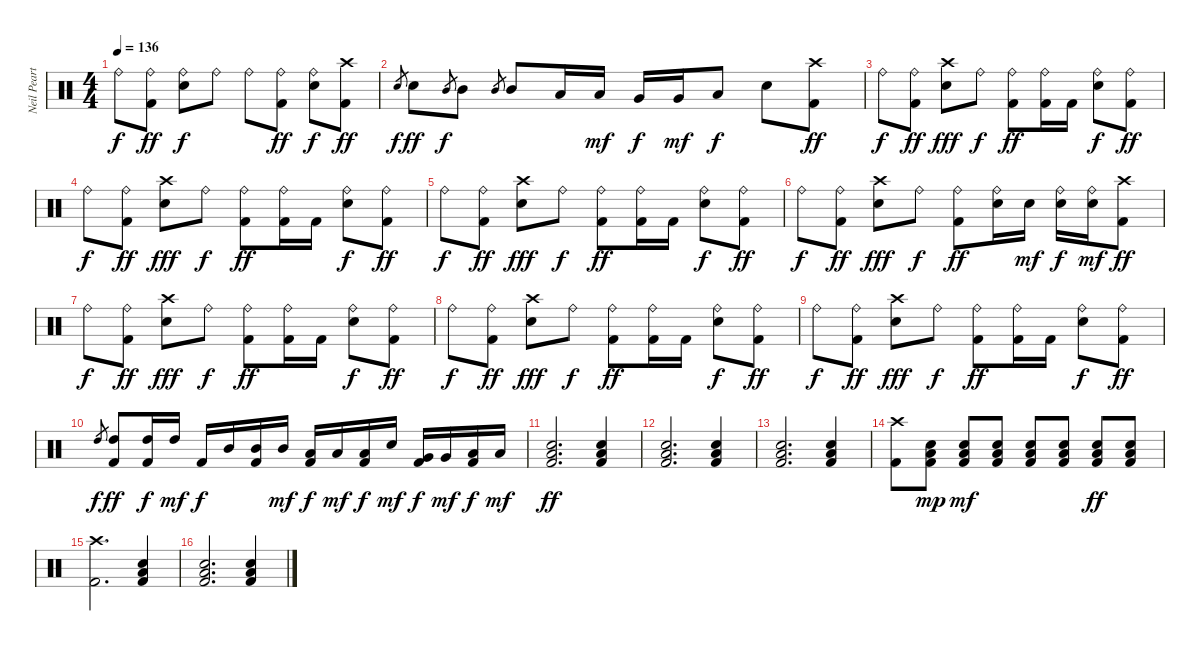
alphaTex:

\track ("Neil Peart" "Neil Peart") {instrument percussion}
\staff {score}
\articulation defaults
\ts (4 4)
\tempo 136
\clef neutral
\ks c "Ride (bell)".8{dy f}
("Ride (bell)" "Kick (hit) 2").8{dy ff} ("Ride (bell)" "Snare (hit) 2").8{dy f} "Ride (bell)".8 "Ride (bell)".8 ("Ride (bell)" "Kick (hit) 2").8{dy ff} ("Ride (bell)" "Snare (hit) 2").8{dy f} ("Crash high (hit)" "Kick (hit) 2").8{dy ff} |
"Snare (hit) 2".8{gr dy f} "Snare (hit) 2".8{dy ff} "Mid Tom (hit)".8{gr dy f} "Mid Tom (hit)".8 "Mid Tom (hit)".8{gr} "Mid Tom (hit)".8 "Low Tom (hit)".16 "Low Tom (hit)".16{dy mf} "Very Low Tom (hit)".16{dy f} "Very Low Tom (hit)".16{dy mf} "Low Floor Tom (hit)".8{dy f} "Snare (hit) 2".8 ("Crash high (hit)" "Kick (hit) 2").8{dy ff} |
"Ride (bell)".8{dy f} ("Ride (bell)" "Kick (hit) 2").8{dy ff} ("Crash high (hit)" "Snare (hit) 2").8{dy fff} "Ride (bell)".8{dy f} ("Ride (bell)" "Kick (hit) 2").8{dy ff} ("Ride (bell)" "Kick (hit) 2").16 "Kick (hit) 2".16 ("Ride (bell)" "Snare (hit) 2").8{dy f} ("Ride (bell)" "Kick (hit) 2").8{dy ff} |
"Ride (bell)".8{dy f} ("Ride (bell)" "Kick (hit) 2").8{dy ff} ("Crash high (hit)" "Snare (hit) 2").8{dy fff} "Ride (bell)".8{dy f} ("Ride (bell)" "Kick (hit) 2").8{dy ff} ("Ride (bell)" "Kick (hit) 2").16 "Kick (hit) 2".16 ("Ride (bell)" "Snare (hit) 2").8{dy f} ("Ride (bell)" "Kick (hit) 2").8{dy ff} |
"Ride (bell)".8{dy f} ("Ride (bell)" "Kick (hit) 2").8{dy ff} ("Crash high (hit)" "Snare (hit) 2").8{dy fff} "Ride (bell)".8{dy f} ("Ride (bell)" "Kick (hit) 2").8{dy ff} ("Ride (bell)" "Kick (hit) 2").16 "Kick (hit) 2".16 ("Ride (bell)" "Snare (hit) 2").8{dy f} ("Ride (bell)" "Kick (hit) 2").8{dy ff} |
"Ride (bell)".8{dy f} ("Ride (bell)" "Kick (hit) 2").8{dy ff} ("Crash high (hit)" "Snare (hit) 2").8{dy fff} "Ride (bell)".8{dy f} ("Ride (bell)" "Kick (hit) 2").8{dy ff} ("Ride (bell)" "Snare (hit) 2").16 "Snare (hit) 2".16{dy mf} ("Ride (bell)" "Snare (hit) 2").16{dy f} ("Ride (bell)" "Snare (hit) 2").16{dy mf} ("Crash high (hit)" "Kick (hit) 2").8{dy ff} |
"Ride (bell)".8{dy f} ("Ride (bell)" "Kick (hit) 2").8{dy ff} ("Crash high (hit)" "Snare (hit) 2").8{dy fff} "Ride (bell)".8{dy f} ("Ride (bell)" "Kick (hit) 2").8{dy ff} ("Ride (bell)" "Kick (hit) 2").16 "Kick (hit) 2".16 ("Ride (bell)" "Snare (hit) 2").8{dy f} ("Ride (bell)" "Kick (hit) 2").8{dy ff} |
"Ride (bell)".8{dy f} ("Ride (bell)" "Kick (hit) 2").8{dy ff} ("Crash high (hit)" "Snare (hit) 2").8{dy fff} "Ride (bell)".8{dy f} ("Ride (bell)" "Kick (hit) 2").8{dy ff} ("Ride (bell)" "Kick (hit) 2").16 "Kick (hit) 2".16 ("Ride (bell)" "Snare (hit) 2").8{dy f} ("Ride (bell)" "Kick (hit) 2").8{dy ff} |
"Ride (bell)".8{dy f} ("Ride (bell)" "Kick (hit) 2").8{dy ff} ("Crash high (hit)" "Snare (hit) 2").8{dy fff} "Ride (bell)".8{dy f} ("Ride (bell)" "Kick (hit) 2").8{dy ff} ("Ride (bell)" "Kick (hit) 2").16 "Kick (hit) 2".16 ("Ride (bell)" "Snare (hit) 2").8{dy f} ("Ride (bell)" "Kick (hit) 2").8{dy ff} |
"High Tom (hit)".8{gr dy f} ("High Tom (hit)" "Kick (hit) 2").8{dy ff} ("High Tom (hit)" "Kick (hit) 2").16{dy f} "High Tom (hit)".16{dy mf} "Kick (hit) 2".16{dy f} "Mid Tom (hit)".16 ("Mid Tom (hit)" "Kick (hit) 2").16 "Mid Tom (hit)".16{dy mf} ("Low Tom (hit)" "Kick (hit) 2").16{dy f} "Low Tom (hit)".16{dy mf} ("Low Tom (hit)" "Kick (hit) 2").16{dy f} "Snare (hit) 2".16{dy mf} ("Very Low Tom (hit)" "Kick (hit) 2").16{dy f} "Very Low Tom (hit)".16{dy mf} ("Low Floor Tom (hit)" "Kick (hit) 2").16{dy f} "Low Floor Tom (hit)".16{dy mf} |
("Snare (hit) 2" "Low Floor Tom (hit)" "Kick (hit) 2").2{d dy ff} ("Snare (hit) 2" "Low Floor Tom (hit)" "Kick (hit) 2").4 |
("Snare (hit) 2" "Low Floor Tom (hit)" "Kick (hit) 2").2{d} ("Snare (hit) 2" "Low Floor Tom (hit)" "Kick (hit) 2").4 |
("Snare (hit) 2" "Low Floor Tom (hit)" "Kick (hit) 2").2{d} ("Snare (hit) 2" "Low Floor Tom (hit)" "Kick (hit) 2").4 |
("Crash high (hit)" "Kick (hit) 2").8 ("Snare (hit) 2" "Low Floor Tom (hit)" "Kick (hit) 2").8{dy mp} ("Snare (hit) 2" "Low Floor Tom (hit)" "Kick (hit) 2").8{dy mf} ("Snare (hit) 2" "Low Floor Tom (hit)" "Kick (hit) 2").8 ("Snare (hit) 2" "Low Floor Tom (hit)" "Kick (hit) 2").8 ("Snare (hit) 2" "Low Floor Tom (hit)" "Kick (hit) 2").8 ("Snare (hit) 2" "Low Floor Tom (hit)" "Kick (hit) 2").8{dy ff} ("Snare (hit) 2" "Low Floor Tom (hit)" "Kick (hit) 2").8 |
("Crash high (hit)" "Kick (hit) 2").2{d} ("Snare (hit) 2" "Low Floor Tom (hit)" "Kick (hit) 2").4 |
("Snare (hit) 2" "Low Floor Tom (hit)" "Kick (hit) 2").2{d} ("Snare (hit) 2" "Low Floor Tom (hit)" "Kick (hit) 2").4
